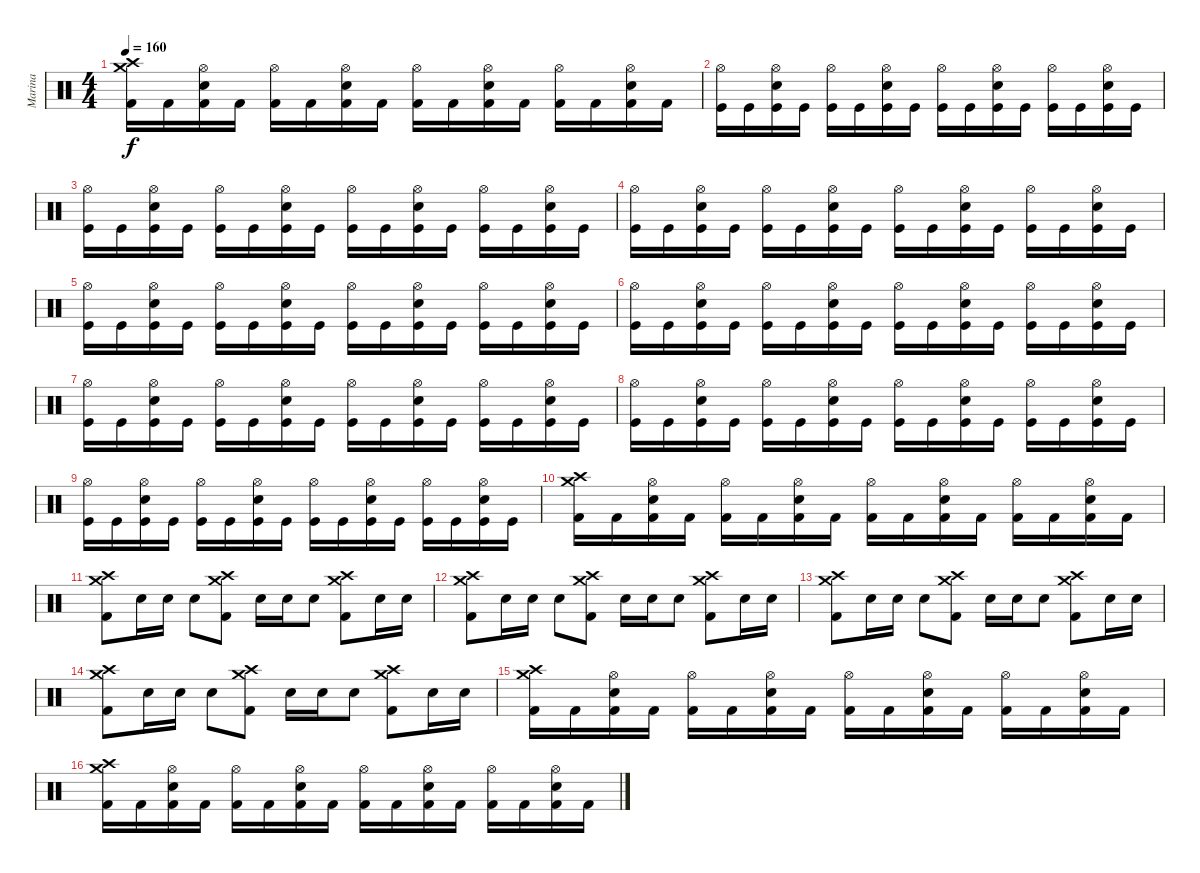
\track ("Marina" "Marina") {instrument percussion}
\staff {score}
\articulation defaults
\ts (4 4)
\tempo 160
\clef neutral
\ks c
("Kick (hit) 2" "Crash high (hit)" "Crash medium (hit)").16{dy f} "Kick (hit) 2".16 ("Kick (hit) 2" "Electric Snare (hit)" "Hi-Hat (open)").16 "Kick (hit) 2".16 ("Kick (hit) 2" "Hi-Hat (open)").16 "Kick (hit) 2".16 ("Kick (hit) 2" "Electric Snare (hit)" "Hi-Hat (open)").16 "Kick (hit) 2".16 ("Kick (hit) 2" "Hi-Hat (open)").16 "Kick (hit) 2".16 ("Kick (hit) 2" "Electric Snare (hit)" "Hi-Hat (open)").16 "Kick (hit) 2".16 ("Kick (hit) 2" "Hi-Hat (open)").16 "Kick (hit) 2".16 ("Kick (hit) 2" "Electric Snare (hit)" "Hi-Hat (open)").16 "Kick (hit) 2".16 |
("Hi-Hat (open)" "Kick (hit)").16 "Kick (hit)".16 ("Hi-Hat (open)" "Snare (hit) 2" "Kick (hit)").16 "Kick (hit)".16 ("Hi-Hat (open)" "Kick (hit)").16 "Kick (hit)".16 ("Hi-Hat (open)" "Snare (hit) 2" "Kick (hit)").16 "Kick (hit)".16 ("Hi-Hat (open)" "Kick (hit)").16 "Kick (hit)".16 ("Hi-Hat (open)" "Snare (hit) 2" "Kick (hit)").16 "Kick (hit)".16 ("Hi-Hat (open)" "Kick (hit)").16 "Kick (hit)".16 ("Hi-Hat (open)" "Snare (hit) 2" "Kick (hit)").16 "Kick (hit)".16 |
("Hi-Hat (open)" "Kick (hit)").16 "Kick (hit)".16 ("Hi-Hat (open)" "Snare (hit) 2" "Kick (hit)").16 "Kick (hit)".16 ("Hi-Hat (open)" "Kick (hit)").16 "Kick (hit)".16 ("Hi-Hat (open)" "Snare (hit) 2" "Kick (hit)").16 "Kick (hit)".16 ("Hi-Hat (open)" "Kick (hit)").16 "Kick (hit)".16 ("Hi-Hat (open)" "Snare (hit) 2" "Kick (hit)").16 "Kick (hit)".16 ("Hi-Hat (open)" "Kick (hit)").16 "Kick (hit)".16 ("Hi-Hat (open)" "Snare (hit) 2" "Kick (hit)").16 "Kick (hit)".16 |
("Hi-Hat (open)" "Kick (hit)").16 "Kick (hit)".16 ("Hi-Hat (open)" "Snare (hit) 2" "Kick (hit)").16 "Kick (hit)".16 ("Hi-Hat (open)" "Kick (hit)").16 "Kick (hit)".16 ("Hi-Hat (open)" "Snare (hit) 2" "Kick (hit)").16 "Kick (hit)".16 ("Hi-Hat (open)" "Kick (hit)").16 "Kick (hit)".16 ("Hi-Hat (open)" "Snare (hit) 2" "Kick (hit)").16 "Kick (hit)".16 ("Hi-Hat (open)" "Kick (hit)").16 "Kick (hit)".16 ("Hi-Hat (open)" "Snare (hit) 2" "Kick (hit)").16 "Kick (hit)".16 |
("Hi-Hat (open)" "Kick (hit)").16 "Kick (hit)".16 ("Hi-Hat (open)" "Snare (hit) 2" "Kick (hit)").16 "Kick (hit)".16 ("Hi-Hat (open)" "Kick (hit)").16 "Kick (hit)".16 ("Hi-Hat (open)" "Snare (hit) 2" "Kick (hit)").16 "Kick (hit)".16 ("Hi-Hat (open)" "Kick (hit)").16 "Kick (hit)".16 ("Hi-Hat (open)" "Snare (hit) 2" "Kick (hit)").16 "Kick (hit)".16 ("Hi-Hat (open)" "Kick (hit)").16 "Kick (hit)".16 ("Hi-Hat (open)" "Snare (hit) 2" "Kick (hit)").16 "Kick (hit)".16 |
("Hi-Hat (open)" "Kick (hit)").16 "Kick (hit)".16 ("Hi-Hat (open)" "Snare (hit) 2" "Kick (hit)").16 "Kick (hit)".16 ("Hi-Hat (open)" "Kick (hit)").16 "Kick (hit)".16 ("Hi-Hat (open)" "Snare (hit) 2" "Kick (hit)").16 "Kick (hit)".16 ("Hi-Hat (open)" "Kick (hit)").16 "Kick (hit)".16 ("Hi-Hat (open)" "Snare (hit) 2" "Kick (hit)").16 "Kick (hit)".16 ("Hi-Hat (open)" "Kick (hit)").16 "Kick (hit)".16 ("Hi-Hat (open)" "Snare (hit) 2" "Kick (hit)").16 "Kick (hit)".16 |
("Hi-Hat (open)" "Kick (hit)").16 "Kick (hit)".16 ("Hi-Hat (open)" "Snare (hit) 2" "Kick (hit)").16 "Kick (hit)".16 ("Hi-Hat (open)" "Kick (hit)").16 "Kick (hit)".16 ("Hi-Hat (open)" "Snare (hit) 2" "Kick (hit)").16 "Kick (hit)".16 ("Hi-Hat (open)" "Kick (hit)").16 "Kick (hit)".16 ("Hi-Hat (open)" "Snare (hit) 2" "Kick (hit)").16 "Kick (hit)".16 ("Hi-Hat (open)" "Kick (hit)").16 "Kick (hit)".16 ("Hi-Hat (open)" "Snare (hit) 2" "Kick (hit)").16 "Kick (hit)".16 |
("Hi-Hat (open)" "Kick (hit)").16 "Kick (hit)".16 ("Hi-Hat (open)" "Snare (hit) 2" "Kick (hit)").16 "Kick (hit)".16 ("Hi-Hat (open)" "Kick (hit)").16 "Kick (hit)".16 ("Hi-Hat (open)" "Snare (hit) 2" "Kick (hit)").16 "Kick (hit)".16 ("Hi-Hat (open)" "Kick (hit)").16 "Kick (hit)".16 ("Hi-Hat (open)" "Snare (hit) 2" "Kick (hit)").16 "Kick (hit)".16 ("Hi-Hat (open)" "Kick (hit)").16 "Kick (hit)".16 ("Hi-Hat (open)" "Snare (hit) 2" "Kick (hit)").16 "Kick (hit)".16 |
("Hi-Hat (open)" "Kick (hit)").16 "Kick (hit)".16 ("Hi-Hat (open)" "Snare (hit) 2" "Kick (hit)").16 "Kick (hit)".16 ("Hi-Hat (open)" "Kick (hit)").16 "Kick (hit)".16 ("Hi-Hat (open)" "Snare (hit) 2" "Kick (hit)").16 "Kick (hit)".16 ("Hi-Hat (open)" "Kick (hit)").16 "Kick (hit)".16 ("Hi-Hat (open)" "Snare (hit) 2" "Kick (hit)").16 "Kick (hit)".16 ("Hi-Hat (open)" "Kick (hit)").16 "Kick (hit)".16 ("Hi-Hat (open)" "Snare (hit) 2" "Kick (hit)").16 "Kick (hit)".16 |
("Kick (hit) 2" "Crash high (hit)" "Crash medium (hit)").16 "Kick (hit) 2".16 ("Kick (hit) 2" "Electric Snare (hit)" "Hi-Hat (open)").16 "Kick (hit) 2".16 ("Kick (hit) 2" "Hi-Hat (open)").16 "Kick (hit) 2".16 ("Kick (hit) 2" "Electric Snare (hit)" "Hi-Hat (open)").16 "Kick (hit) 2".16 ("Kick (hit) 2" "Hi-Hat (open)").16 "Kick (hit) 2".16 ("Kick (hit) 2" "Electric Snare (hit)" "Hi-Hat (open)").16 "Kick (hit) 2".16 ("Kick (hit) 2" "Hi-Hat (open)").16 "Kick (hit) 2".16 ("Kick (hit) 2" "Electric Snare (hit)" "Hi-Hat (open)").16 "Kick (hit) 2".16 |
("Kick (hit) 2" "Crash high (hit)" "Crash medium (hit)").8 "Electric Snare (hit)".16 "Electric Snare (hit)".16 "Electric Snare (hit)".8 ("Kick (hit) 2" "Crash high (hit)" "Crash medium (hit)").8 "Electric Snare (hit)".16 "Electric Snare (hit)".16 "Electric Snare (hit)".8 ("Kick (hit) 2" "Crash high (hit)" "Crash medium (hit)").8 "Electric Snare (hit)".16 "Electric Snare (hit)".16 |
("Kick (hit) 2" "Crash high (hit)" "Crash medium (hit)").8 "Electric Snare (hit)".16 "Electric Snare (hit)".16 "Electric Snare (hit)".8 ("Kick (hit) 2" "Crash high (hit)" "Crash medium (hit)").8 "Electric Snare (hit)".16 "Electric Snare (hit)".16 "Electric Snare (hit)".8 ("Kick (hit) 2" "Crash high (hit)" "Crash medium (hit)").8 "Electric Snare (hit)".16 "Electric Snare (hit)".16 |
("Kick (hit) 2" "Crash high (hit)" "Crash medium (hit)").8 "Electric Snare (hit)".16 "Electric Snare (hit)".16 "Electric Snare (hit)".8 ("Kick (hit) 2" "Crash high (hit)" "Crash medium (hit)").8 "Electric Snare (hit)".16 "Electric Snare (hit)".16 "Electric Snare (hit)".8 ("Kick (hit) 2" "Crash high (hit)" "Crash medium (hit)").8 "Electric Snare (hit)".16 "Electric Snare (hit)".16 |
("Kick (hit) 2" "Crash high (hit)" "Crash medium (hit)").8 "Electric Snare (hit)".16 "Electric Snare (hit)".16 "Electric Snare (hit)".8 ("Kick (hit) 2" "Crash high (hit)" "Crash medium (hit)").8 "Electric Snare (hit)".16 "Electric Snare (hit)".16 "Electric Snare (hit)".8 ("Kick (hit) 2" "Crash high (hit)" "Crash medium (hit)").8 "Electric Snare (hit)".16 "Electric Snare (hit)".16 |
("Kick (hit) 2" "Crash high (hit)" "Crash medium (hit)").16 "Kick (hit) 2".16 ("Kick (hit) 2" "Electric Snare (hit)" "Hi-Hat (open)").16 "Kick (hit) 2".16 ("Kick (hit) 2" "Hi-Hat (open)").16 "Kick (hit) 2".16 ("Kick (hit) 2" "Electric Snare (hit)" "Hi-Hat (open)").16 "Kick (hit) 2".16 ("Kick (hit) 2" "Hi-Hat (open)").16 "Kick (hit) 2".16 ("Kick (hit) 2" "Electric Snare (hit)" "Hi-Hat (open)").16 "Kick (hit) 2".16 ("Kick (hit) 2" "Hi-Hat (open)").16 "Kick (hit) 2".16 ("Kick (hit) 2" "Electric Snare (hit)" "Hi-Hat (open)").16 "Kick (hit) 2".16 |
("Kick (hit) 2" "Crash high (hit)" "Crash medium (hit)").16 "Kick (hit) 2".16 ("Kick (hit) 2" "Electric Snare (hit)" "Hi-Hat (open)").16 "Kick (hit) 2".16 ("Kick (hit) 2" "Hi-Hat (open)").16 "Kick (hit) 2".16 ("Kick (hit) 2" "Electric Snare (hit)" "Hi-Hat (open)").16 "Kick (hit) 2".16 ("Kick (hit) 2" "Hi-Hat (open)").16 "Kick (hit) 2".16 ("Kick (hit) 2" "Electric Snare (hit)" "Hi-Hat (open)").16 "Kick (hit) 2".16 ("Kick (hit) 2" "Hi-Hat (open)").16 "Kick (hit) 2".16 ("Kick (hit) 2" "Electric Snare (hit)" "Hi-Hat (open)").16 "Kick (hit) 2".16
